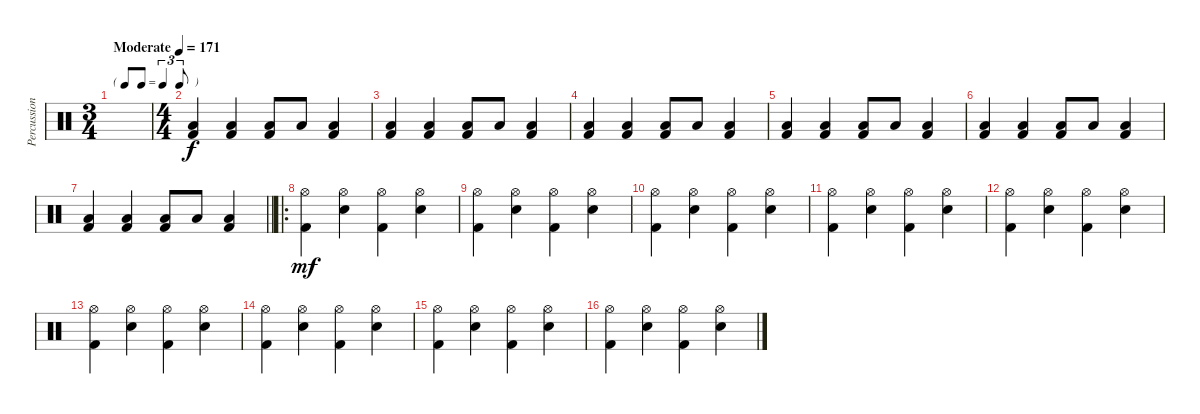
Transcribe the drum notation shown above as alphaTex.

\track ("Percussion" "Percussion") {instrument percussion}
\staff {score}
\articulation defaults
\ts (3 4)
\tf triplet8th
\tempo (171 "Moderate")
\clef neutral
\ks c
|
\ts (4 4)
("Low Floor Tom (hit)" "Kick (hit) 2").4 ("Low Floor Tom (hit)" "Kick (hit) 2").4 ("Low Floor Tom (hit)" "Kick (hit) 2").8 "Low Floor Tom (hit)".8 ("Low Floor Tom (hit)" "Kick (hit) 2").4 |
("Low Floor Tom (hit)" "Kick (hit) 2").4 ("Low Floor Tom (hit)" "Kick (hit) 2").4 ("Low Floor Tom (hit)" "Kick (hit) 2").8 "Low Floor Tom (hit)".8 ("Low Floor Tom (hit)" "Kick (hit) 2").4 |
("Low Floor Tom (hit)" "Kick (hit) 2").4 ("Low Floor Tom (hit)" "Kick (hit) 2").4 ("Low Floor Tom (hit)" "Kick (hit) 2").8 "Low Floor Tom (hit)".8 ("Low Floor Tom (hit)" "Kick (hit) 2").4 |
("Low Floor Tom (hit)" "Kick (hit) 2").4 ("Low Floor Tom (hit)" "Kick (hit) 2").4 ("Low Floor Tom (hit)" "Kick (hit) 2").8 "Low Floor Tom (hit)".8 ("Low Floor Tom (hit)" "Kick (hit) 2").4 |
("Low Floor Tom (hit)" "Kick (hit) 2").4 ("Low Floor Tom (hit)" "Kick (hit) 2").4 ("Low Floor Tom (hit)" "Kick (hit) 2").8 "Low Floor Tom (hit)".8 ("Low Floor Tom (hit)" "Kick (hit) 2").4 |
\barLineRight lightlight
("Low Floor Tom (hit)" "Kick (hit) 2").4 ("Low Floor Tom (hit)" "Kick (hit) 2").4 ("Low Floor Tom (hit)" "Kick (hit) 2").8 "Low Floor Tom (hit)".8 ("Low Floor Tom (hit)" "Kick (hit) 2").4 |
\ro
("Hi-Hat (open)" "Kick (hit) 2").4{dy mf} ("Hi-Hat (open)" "Snare (hit) 2").4 ("Hi-Hat (open)" "Kick (hit) 2").4 ("Hi-Hat (open)" "Snare (hit) 2").4 |
("Hi-Hat (open)" "Kick (hit) 2").4 ("Hi-Hat (open)" "Snare (hit) 2").4 ("Hi-Hat (open)" "Kick (hit) 2").4 ("Hi-Hat (open)" "Snare (hit) 2").4 |
("Hi-Hat (open)" "Kick (hit) 2").4 ("Hi-Hat (open)" "Snare (hit) 2").4 ("Hi-Hat (open)" "Kick (hit) 2").4 ("Hi-Hat (open)" "Snare (hit) 2").4 |
("Hi-Hat (open)" "Kick (hit) 2").4 ("Hi-Hat (open)" "Snare (hit) 2").4 ("Hi-Hat (open)" "Kick (hit) 2").4 ("Hi-Hat (open)" "Snare (hit) 2").4 |
("Hi-Hat (open)" "Kick (hit) 2").4 ("Hi-Hat (open)" "Snare (hit) 2").4 ("Hi-Hat (open)" "Kick (hit) 2").4 ("Hi-Hat (open)" "Snare (hit) 2").4 |
("Hi-Hat (open)" "Kick (hit) 2").4 ("Hi-Hat (open)" "Snare (hit) 2").4 ("Hi-Hat (open)" "Kick (hit) 2").4 ("Hi-Hat (open)" "Snare (hit) 2").4 |
("Hi-Hat (open)" "Kick (hit) 2").4 ("Hi-Hat (open)" "Snare (hit) 2").4 ("Hi-Hat (open)" "Kick (hit) 2").4 ("Hi-Hat (open)" "Snare (hit) 2").4 |
("Hi-Hat (open)" "Kick (hit) 2").4 ("Hi-Hat (open)" "Snare (hit) 2").4 ("Hi-Hat (open)" "Kick (hit) 2").4 ("Hi-Hat (open)" "Snare (hit) 2").4 |
("Hi-Hat (open)" "Kick (hit) 2").4 ("Hi-Hat (open)" "Snare (hit) 2").4 ("Hi-Hat (open)" "Kick (hit) 2").4 ("Hi-Hat (open)" "Snare (hit) 2").4
